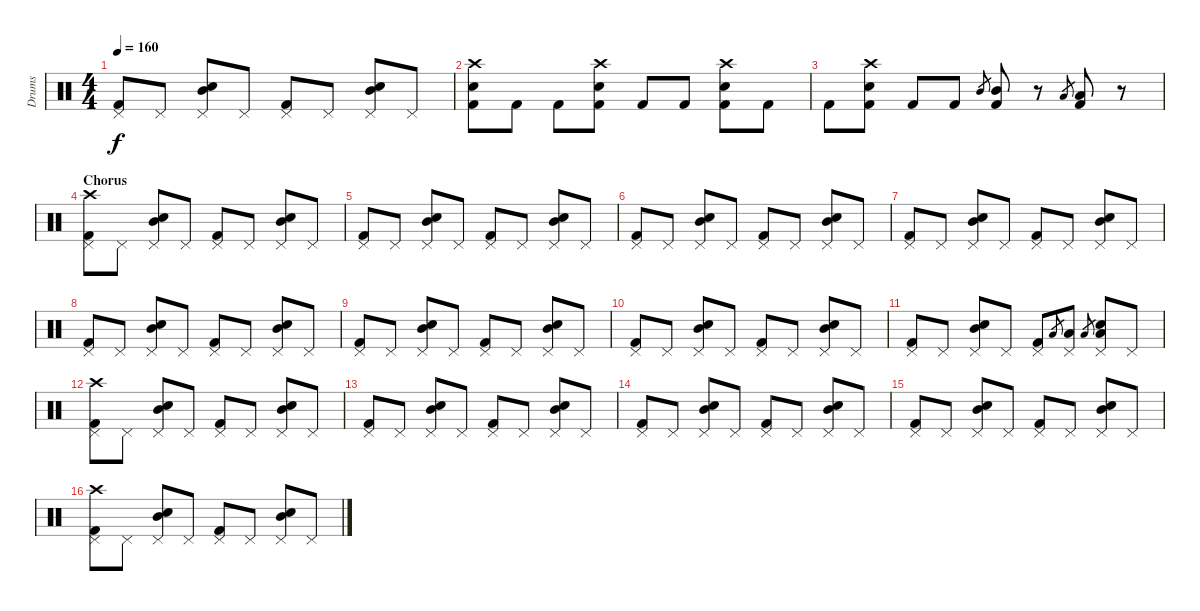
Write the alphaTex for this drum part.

\track ("Drums" "Drums") {instrument percussion}
\staff {score}
\articulation defaults
\ts (4 4)
\tempo 160
\clef neutral
\ks c
("Kick (hit) 2" "Pedal Hi-Hat (hit)").8{dy f} "Pedal Hi-Hat (hit)".8 ("Snare (hit) 2" "Pedal Hi-Hat (hit)" "Mid Tom (hit)").8 "Pedal Hi-Hat (hit)".8 ("Kick (hit) 2" "Pedal Hi-Hat (hit)").8 "Pedal Hi-Hat (hit)".8 ("Snare (hit) 2" "Pedal Hi-Hat (hit)" "Mid Tom (hit)").8 "Pedal Hi-Hat (hit)".8 |
("Kick (hit) 2" "Crash high (hit)" "Snare (hit) 2").8 "Kick (hit) 2".8 "Kick (hit) 2".8 ("Kick (hit) 2" "Crash high (hit)" "Snare (hit) 2").8 "Kick (hit) 2".8 "Kick (hit) 2".8 ("Kick (hit) 2" "Crash high (hit)" "Snare (hit) 2").8 "Kick (hit) 2".8 |
"Kick (hit) 2".8 ("Kick (hit) 2" "Crash high (hit)" "Snare (hit) 2").8 "Kick (hit) 2".8 "Kick (hit) 2".8 "Mid Tom (hit)".8{gr} ("Kick (hit) 2" "Mid Tom (hit)").8 r.8 "Low Tom (hit)".8{gr} ("Kick (hit) 2" "Low Tom (hit)").8 r.8 |
\section ("" "Chorus")
("Kick (hit) 2" "Pedal Hi-Hat (hit)" "Crash high (hit)").8 "Pedal Hi-Hat (hit)".8 ("Snare (hit) 2" "Pedal Hi-Hat (hit)" "Mid Tom (hit)").8 "Pedal Hi-Hat (hit)".8 ("Kick (hit) 2" "Pedal Hi-Hat (hit)").8 "Pedal Hi-Hat (hit)".8 ("Snare (hit) 2" "Pedal Hi-Hat (hit)" "Mid Tom (hit)").8 "Pedal Hi-Hat (hit)".8 |
("Kick (hit) 2" "Pedal Hi-Hat (hit)").8 "Pedal Hi-Hat (hit)".8 ("Snare (hit) 2" "Pedal Hi-Hat (hit)" "Mid Tom (hit)").8 "Pedal Hi-Hat (hit)".8 ("Kick (hit) 2" "Pedal Hi-Hat (hit)").8 "Pedal Hi-Hat (hit)".8 ("Snare (hit) 2" "Pedal Hi-Hat (hit)" "Mid Tom (hit)").8 "Pedal Hi-Hat (hit)".8 |
("Kick (hit) 2" "Pedal Hi-Hat (hit)").8 "Pedal Hi-Hat (hit)".8 ("Snare (hit) 2" "Pedal Hi-Hat (hit)" "Mid Tom (hit)").8 "Pedal Hi-Hat (hit)".8 ("Kick (hit) 2" "Pedal Hi-Hat (hit)").8 "Pedal Hi-Hat (hit)".8 ("Snare (hit) 2" "Pedal Hi-Hat (hit)" "Mid Tom (hit)").8 "Pedal Hi-Hat (hit)".8 |
("Kick (hit) 2" "Pedal Hi-Hat (hit)").8 "Pedal Hi-Hat (hit)".8 ("Snare (hit) 2" "Pedal Hi-Hat (hit)" "Mid Tom (hit)").8 "Pedal Hi-Hat (hit)".8 ("Kick (hit) 2" "Pedal Hi-Hat (hit)").8 "Pedal Hi-Hat (hit)".8 ("Snare (hit) 2" "Pedal Hi-Hat (hit)" "Mid Tom (hit)").8 "Pedal Hi-Hat (hit)".8 |
("Kick (hit) 2" "Pedal Hi-Hat (hit)").8 "Pedal Hi-Hat (hit)".8 ("Snare (hit) 2" "Pedal Hi-Hat (hit)" "Mid Tom (hit)").8 "Pedal Hi-Hat (hit)".8 ("Kick (hit) 2" "Pedal Hi-Hat (hit)").8 "Pedal Hi-Hat (hit)".8 ("Snare (hit) 2" "Pedal Hi-Hat (hit)" "Mid Tom (hit)").8 "Pedal Hi-Hat (hit)".8 |
("Kick (hit) 2" "Pedal Hi-Hat (hit)").8 "Pedal Hi-Hat (hit)".8 ("Snare (hit) 2" "Pedal Hi-Hat (hit)" "Mid Tom (hit)").8 "Pedal Hi-Hat (hit)".8 ("Kick (hit) 2" "Pedal Hi-Hat (hit)").8 "Pedal Hi-Hat (hit)".8 ("Snare (hit) 2" "Pedal Hi-Hat (hit)" "Mid Tom (hit)").8 "Pedal Hi-Hat (hit)".8 |
("Kick (hit) 2" "Pedal Hi-Hat (hit)").8 "Pedal Hi-Hat (hit)".8 ("Snare (hit) 2" "Pedal Hi-Hat (hit)" "Mid Tom (hit)").8 "Pedal Hi-Hat (hit)".8 ("Kick (hit) 2" "Pedal Hi-Hat (hit)").8 "Pedal Hi-Hat (hit)".8 ("Snare (hit) 2" "Pedal Hi-Hat (hit)" "Mid Tom (hit)").8 "Pedal Hi-Hat (hit)".8 |
("Kick (hit) 2" "Pedal Hi-Hat (hit)").8 "Pedal Hi-Hat (hit)".8 ("Snare (hit) 2" "Pedal Hi-Hat (hit)" "Mid Tom (hit)").8 "Pedal Hi-Hat (hit)".8 ("Kick (hit) 2" "Pedal Hi-Hat (hit)").8 "Low Tom (hit)".8{gr} ("Pedal Hi-Hat (hit)" "Low Tom (hit)").8 "Low Tom (hit)".8{gr} ("Snare (hit) 2" "Pedal Hi-Hat (hit)" "Low Tom (hit)").8 "Pedal Hi-Hat (hit)".8 |
("Kick (hit) 2" "Pedal Hi-Hat (hit)" "Crash high (hit)").8 "Pedal Hi-Hat (hit)".8 ("Snare (hit) 2" "Pedal Hi-Hat (hit)" "Mid Tom (hit)").8 "Pedal Hi-Hat (hit)".8 ("Kick (hit) 2" "Pedal Hi-Hat (hit)").8 "Pedal Hi-Hat (hit)".8 ("Snare (hit) 2" "Pedal Hi-Hat (hit)" "Mid Tom (hit)").8 "Pedal Hi-Hat (hit)".8 |
("Kick (hit) 2" "Pedal Hi-Hat (hit)").8 "Pedal Hi-Hat (hit)".8 ("Snare (hit) 2" "Pedal Hi-Hat (hit)" "Mid Tom (hit)").8 "Pedal Hi-Hat (hit)".8 ("Kick (hit) 2" "Pedal Hi-Hat (hit)").8 "Pedal Hi-Hat (hit)".8 ("Snare (hit) 2" "Pedal Hi-Hat (hit)" "Mid Tom (hit)").8 "Pedal Hi-Hat (hit)".8 |
("Kick (hit) 2" "Pedal Hi-Hat (hit)").8 "Pedal Hi-Hat (hit)".8 ("Snare (hit) 2" "Pedal Hi-Hat (hit)" "Mid Tom (hit)").8 "Pedal Hi-Hat (hit)".8 ("Kick (hit) 2" "Pedal Hi-Hat (hit)").8 "Pedal Hi-Hat (hit)".8 ("Snare (hit) 2" "Pedal Hi-Hat (hit)" "Mid Tom (hit)").8 "Pedal Hi-Hat (hit)".8 |
("Kick (hit) 2" "Pedal Hi-Hat (hit)").8 "Pedal Hi-Hat (hit)".8 ("Snare (hit) 2" "Pedal Hi-Hat (hit)" "Mid Tom (hit)").8 "Pedal Hi-Hat (hit)".8 ("Kick (hit) 2" "Pedal Hi-Hat (hit)").8 "Pedal Hi-Hat (hit)".8 ("Snare (hit) 2" "Pedal Hi-Hat (hit)" "Mid Tom (hit)").8 "Pedal Hi-Hat (hit)".8 |
("Kick (hit) 2" "Pedal Hi-Hat (hit)" "Crash high (hit)").8 "Pedal Hi-Hat (hit)".8 ("Snare (hit) 2" "Pedal Hi-Hat (hit)" "Mid Tom (hit)").8 "Pedal Hi-Hat (hit)".8 ("Kick (hit) 2" "Pedal Hi-Hat (hit)").8 "Pedal Hi-Hat (hit)".8 ("Snare (hit) 2" "Pedal Hi-Hat (hit)" "Mid Tom (hit)").8 "Pedal Hi-Hat (hit)".8
